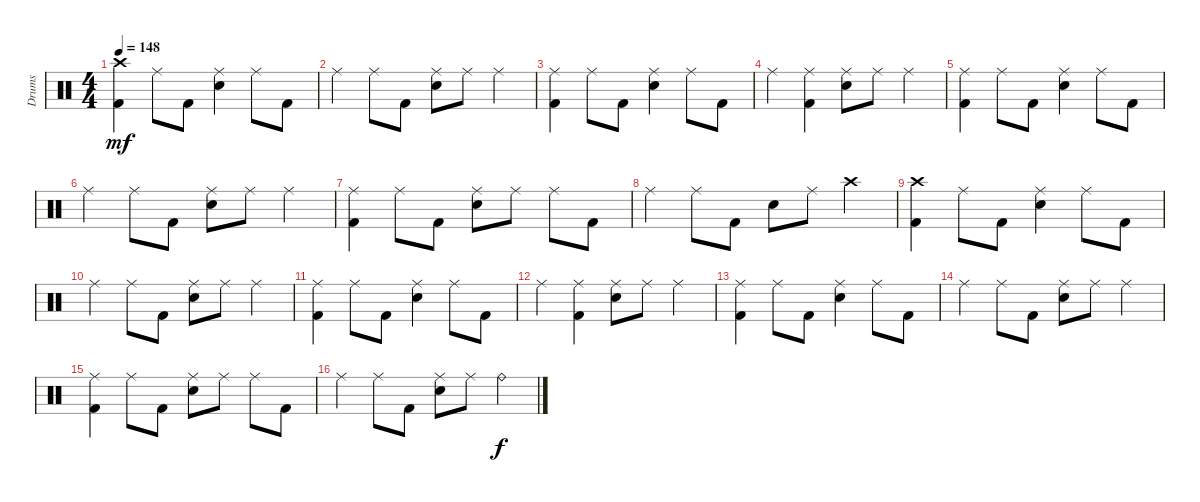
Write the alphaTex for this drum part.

\track ("Drums" "Drums") {instrument percussion}
\staff {score}
\articulation defaults
\ts (4 4)
\tempo 148
\clef neutral
\ks c
("Crash high (hit)" "Kick (hit) 2").4{dy mf} "Ride (middle)".8 "Kick (hit) 2".8 ("Ride (middle)" "Electric Snare (hit)").4 "Ride (middle)".8 "Kick (hit) 2".8 |
"Ride (middle)".4 "Ride (middle)".8 "Kick (hit) 2".8 ("Ride (middle)" "Electric Snare (hit)").8 "Ride (middle)".8 "Ride (middle)".4 |
("Ride (middle)" "Kick (hit) 2").4 "Ride (middle)".8 "Kick (hit) 2".8 ("Ride (middle)" "Electric Snare (hit)").4 "Ride (middle)".8 "Kick (hit) 2".8 |
"Ride (middle)".4 ("Ride (middle)" "Kick (hit) 2").4 ("Ride (middle)" "Electric Snare (hit)").8 "Ride (middle)".8 "Ride (middle)".4 |
("Ride (middle)" "Kick (hit) 2").4 "Ride (middle)".8 "Kick (hit) 2".8 ("Ride (middle)" "Electric Snare (hit)").4 "Ride (middle)".8 "Kick (hit) 2".8 |
"Ride (middle)".4 "Ride (middle)".8 "Kick (hit) 2".8 ("Ride (middle)" "Electric Snare (hit)").8 "Ride (middle)".8 "Ride (middle)".4 |
("Ride (middle)" "Kick (hit) 2").4 "Ride (middle)".8 "Kick (hit) 2".8 ("Ride (middle)" "Electric Snare (hit)").8 "Ride (middle)".8 "Ride (middle)".8 "Kick (hit) 2".8 |
"Ride (middle)".4 "Ride (middle)".8 "Kick (hit) 2".8 "Electric Snare (hit)".8 "Ride (middle)".8 "Crash high (hit)".4 |
("Crash high (hit)" "Kick (hit) 2").4 "Ride (middle)".8 "Kick (hit) 2".8 ("Ride (middle)" "Electric Snare (hit)").4 "Ride (middle)".8 "Kick (hit) 2".8 |
"Ride (middle)".4 "Ride (middle)".8 "Kick (hit) 2".8 ("Ride (middle)" "Electric Snare (hit)").8 "Ride (middle)".8 "Ride (middle)".4 |
("Ride (middle)" "Kick (hit) 2").4 "Ride (middle)".8 "Kick (hit) 2".8 ("Ride (middle)" "Electric Snare (hit)").4 "Ride (middle)".8 "Kick (hit) 2".8 |
"Ride (middle)".4 ("Ride (middle)" "Kick (hit) 2").4 ("Ride (middle)" "Electric Snare (hit)").8 "Ride (middle)".8 "Ride (middle)".4 |
("Ride (middle)" "Kick (hit) 2").4 "Ride (middle)".8 "Kick (hit) 2".8 ("Ride (middle)" "Electric Snare (hit)").4 "Ride (middle)".8 "Kick (hit) 2".8 |
"Ride (middle)".4 "Ride (middle)".8 "Kick (hit) 2".8 ("Ride (middle)" "Electric Snare (hit)").8 "Ride (middle)".8 "Ride (middle)".4 |
("Ride (middle)" "Kick (hit) 2").4 "Ride (middle)".8 "Kick (hit) 2".8 ("Ride (middle)" "Electric Snare (hit)").8 "Ride (middle)".8 "Ride (middle)".8 "Kick (hit) 2".8 |
"Ride (middle)".4 "Ride (middle)".8 "Kick (hit) 2".8 ("Ride (middle)" "Electric Snare (hit)").8 "Ride (middle)".8 "Ride (bell)".4{dy f}
